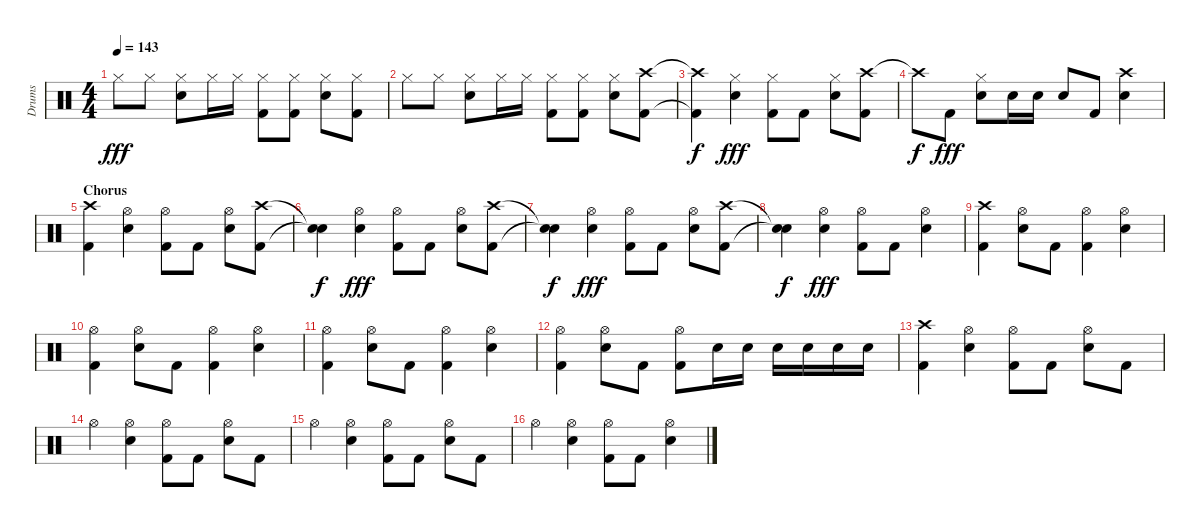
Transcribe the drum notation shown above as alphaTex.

\track ("Drums" "Drums") {instrument percussion}
\staff {score}
\articulation defaults
\ts (4 4)
\tempo 143
\clef neutral
\ks c "Hi-Hat (closed)".8{dy fff} "Hi-Hat (closed)".8
("Hi-Hat (closed)" "Snare (hit) 2").8 "Hi-Hat (closed)".16 "Hi-Hat (closed)".16 ("Hi-Hat (closed)" "Kick (hit) 2").8 ("Hi-Hat (closed)" "Kick (hit) 2").8 ("Hi-Hat (closed)" "Snare (hit) 2").8 ("Hi-Hat (closed)" "Kick (hit) 2").8 |
"Hi-Hat (closed)".8 "Hi-Hat (closed)".8 ("Hi-Hat (closed)" "Snare (hit) 2").8 "Hi-Hat (closed)".16 "Hi-Hat (closed)".16 ("Hi-Hat (closed)" "Kick (hit) 2").8 ("Hi-Hat (closed)" "Kick (hit) 2").8 ("Hi-Hat (closed)" "Snare (hit) 2").8 ("Crash high (hit)" "Kick (hit) 2").8 |
("Crash high (hit)"{t} "Kick (hit) 2"{t}).4{dy f} ("Hi-Hat (closed)" "Snare (hit) 2").4{dy fff} ("Hi-Hat (closed)" "Kick (hit) 2").8 "Kick (hit) 2".8 ("Hi-Hat (closed)" "Snare (hit) 2").8 ("Crash high (hit)" "Kick (hit) 2").8 |
"Crash high (hit)"{t}.8{dy f} "Kick (hit) 2".8{dy fff} ("Hi-Hat (closed)" "Snare (hit) 2").8 "Snare (hit) 2".16 "Snare (hit) 2".16 "Snare (hit) 2".8 "Kick (hit) 2".8 ("Crash high (hit)" "Snare (hit) 2").4 |
\section ("" "Chorus")
("Crash high (hit)" "Kick (hit) 2").4 ("Hi-Hat (open)" "Snare (hit) 2").4 ("Hi-Hat (open)" "Kick (hit) 2").8 "Kick (hit) 2".8 ("Hi-Hat (open)" "Snare (hit) 2").8 ("Crash high (hit)" "Kick (hit) 2").8 |
("Snare (hit)"{t} "Snare (hit)"{t}).4{dy f} ("Hi-Hat (open)" "Snare (hit) 2").4{dy fff} ("Hi-Hat (open)" "Kick (hit) 2").8 "Kick (hit) 2".8 ("Hi-Hat (open)" "Snare (hit) 2").8 ("Crash high (hit)" "Kick (hit) 2").8 |
("Snare (hit)"{t} "Snare (hit)"{t}).4{dy f} ("Hi-Hat (open)" "Snare (hit) 2").4{dy fff} ("Hi-Hat (open)" "Kick (hit) 2").8 "Kick (hit) 2".8 ("Hi-Hat (open)" "Snare (hit) 2").8 ("Crash high (hit)" "Kick (hit) 2").8 |
("Snare (hit)"{t} "Snare (hit)"{t}).4{dy f} ("Hi-Hat (open)" "Snare (hit) 2").4{dy fff} ("Hi-Hat (open)" "Kick (hit) 2").8 "Kick (hit) 2".8 ("Hi-Hat (open)" "Snare (hit) 2").4 |
("Crash high (hit)" "Kick (hit) 2").4 ("Hi-Hat (open)" "Snare (hit) 2").8 "Kick (hit) 2".8 ("Hi-Hat (open)" "Kick (hit) 2").4 ("Hi-Hat (open)" "Snare (hit) 2").4 |
("Hi-Hat (open)" "Kick (hit) 2").4 ("Hi-Hat (open)" "Snare (hit) 2").8 "Kick (hit) 2".8 ("Hi-Hat (open)" "Kick (hit) 2").4 ("Hi-Hat (open)" "Snare (hit) 2").4 |
("Hi-Hat (open)" "Kick (hit) 2").4 ("Hi-Hat (open)" "Snare (hit) 2").8 "Kick (hit) 2".8 ("Hi-Hat (open)" "Kick (hit) 2").4 ("Hi-Hat (open)" "Snare (hit) 2").4 |
("Hi-Hat (open)" "Kick (hit) 2").4 ("Hi-Hat (open)" "Snare (hit) 2").8 "Kick (hit) 2".8 ("Hi-Hat (open)" "Kick (hit) 2").8 "Snare (hit) 2".16 "Snare (hit) 2".16 "Snare (hit) 2".16 "Snare (hit) 2".16 "Snare (hit) 2".16 "Snare (hit) 2".16 |
("Crash high (hit)" "Kick (hit) 2").4 ("Hi-Hat (open)" "Snare (hit) 2").4 ("Hi-Hat (open)" "Kick (hit) 2").8 "Kick (hit) 2".8 ("Hi-Hat (open)" "Snare (hit) 2").8 "Kick (hit) 2".8 |
"Hi-Hat (open)".4 ("Hi-Hat (open)" "Snare (hit) 2").4 ("Hi-Hat (open)" "Kick (hit) 2").8 "Kick (hit) 2".8 ("Hi-Hat (open)" "Snare (hit) 2").8 "Kick (hit) 2".8 |
"Hi-Hat (open)".4 ("Hi-Hat (open)" "Snare (hit) 2").4 ("Hi-Hat (open)" "Kick (hit) 2").8 "Kick (hit) 2".8 ("Hi-Hat (open)" "Snare (hit) 2").8 "Kick (hit) 2".8 |
"Hi-Hat (open)".4 ("Hi-Hat (open)" "Snare (hit) 2").4 ("Hi-Hat (open)" "Kick (hit) 2").8 "Kick (hit) 2".8 ("Hi-Hat (open)" "Snare (hit) 2").4
